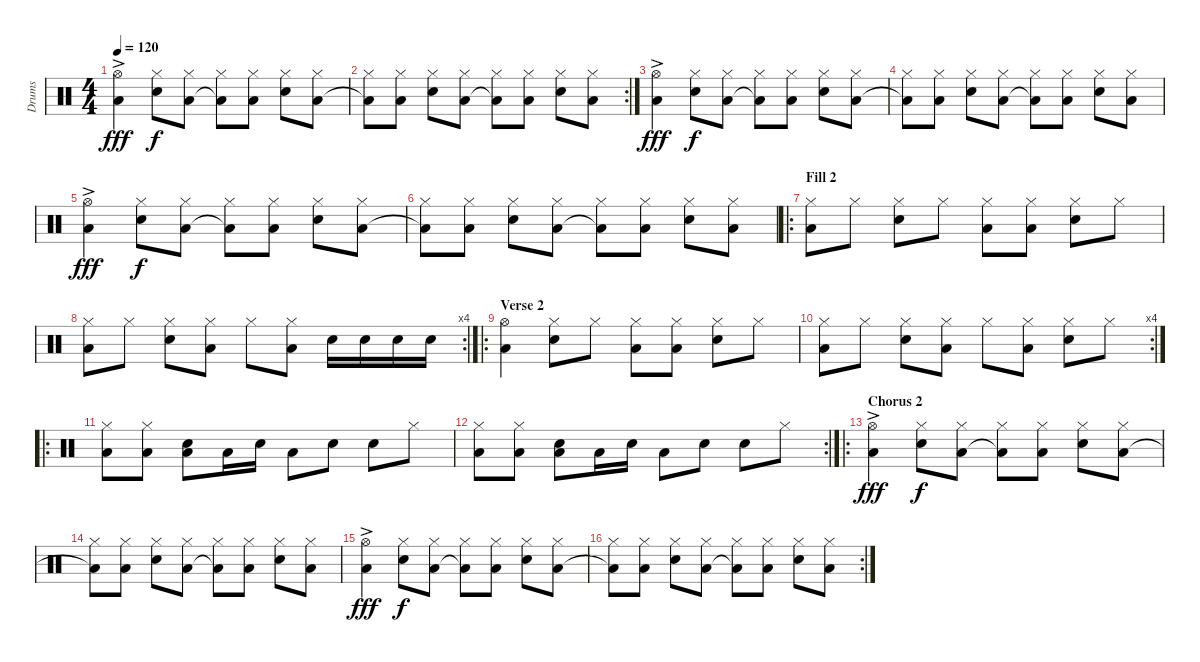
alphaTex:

\track ("Drums" "Drums") {instrument percussion}
\staff {score}
\articulation defaults
\ts (4 4)
\tempo 120
\clef neutral
\ks c
("Hi-Hat (open)"{ac} "Low Floor Tom (hit)"{ac}).4{dy fff} ("Hi-Hat (closed)" "Snare (hit) 2").8{dy f} ("Hi-Hat (closed)" "Low Floor Tom (hit)").8 ("Hi-Hat (closed)" "Low Floor Tom (hit)"{t}).8 ("Hi-Hat (closed)" "Low Floor Tom (hit)").8 ("Hi-Hat (closed)" "Snare (hit) 2").8 ("Hi-Hat (closed)" "Low Floor Tom (hit)").8 |
\rc 2
("Hi-Hat (closed)" "Low Floor Tom (hit)"{t}).8 ("Hi-Hat (closed)" "Low Floor Tom (hit)").8 ("Hi-Hat (closed)" "Snare (hit) 2").8 ("Hi-Hat (closed)" "Low Floor Tom (hit)").8 ("Hi-Hat (closed)" "Low Floor Tom (hit)"{t}).8 ("Hi-Hat (closed)" "Low Floor Tom (hit)").8 ("Hi-Hat (closed)" "Snare (hit) 2").8 ("Hi-Hat (closed)" "Low Floor Tom (hit)").8 |
("Hi-Hat (open)"{ac} "Low Floor Tom (hit)"{ac}).4{dy fff} ("Hi-Hat (closed)" "Snare (hit) 2").8{dy f} ("Hi-Hat (closed)" "Low Floor Tom (hit)").8 ("Hi-Hat (closed)" "Low Floor Tom (hit)"{t}).8 ("Hi-Hat (closed)" "Low Floor Tom (hit)").8 ("Hi-Hat (closed)" "Snare (hit) 2").8 ("Hi-Hat (closed)" "Low Floor Tom (hit)").8 |
("Hi-Hat (closed)" "Low Floor Tom (hit)"{t}).8 ("Hi-Hat (closed)" "Low Floor Tom (hit)").8 ("Hi-Hat (closed)" "Snare (hit) 2").8 ("Hi-Hat (closed)" "Low Floor Tom (hit)").8 ("Hi-Hat (closed)" "Low Floor Tom (hit)"{t}).8 ("Hi-Hat (closed)" "Low Floor Tom (hit)").8 ("Hi-Hat (closed)" "Snare (hit) 2").8 ("Hi-Hat (closed)" "Low Floor Tom (hit)").8 |
("Hi-Hat (open)"{ac} "Low Floor Tom (hit)"{ac}).4{dy fff} ("Hi-Hat (closed)" "Snare (hit) 2").8{dy f} ("Hi-Hat (closed)" "Low Floor Tom (hit)").8 ("Hi-Hat (closed)" "Low Floor Tom (hit)"{t}).8 ("Hi-Hat (closed)" "Low Floor Tom (hit)").8 ("Hi-Hat (closed)" "Snare (hit) 2").8 ("Hi-Hat (closed)" "Low Floor Tom (hit)").8 |
("Hi-Hat (closed)" "Low Floor Tom (hit)"{t}).8 ("Hi-Hat (closed)" "Low Floor Tom (hit)").8 ("Hi-Hat (closed)" "Snare (hit) 2").8 ("Hi-Hat (closed)" "Low Floor Tom (hit)").8 ("Hi-Hat (closed)" "Low Floor Tom (hit)"{t}).8 ("Hi-Hat (closed)" "Low Floor Tom (hit)").8 ("Hi-Hat (closed)" "Snare (hit) 2").8 ("Hi-Hat (closed)" "Low Floor Tom (hit)").8 |
\ro
\section ("" "Fill 2")
("Hi-Hat (closed)" "Low Floor Tom (hit)").8 "Hi-Hat (closed)".8 ("Hi-Hat (closed)" "Snare (hit) 2").8 "Hi-Hat (closed)".8 ("Hi-Hat (closed)" "Low Floor Tom (hit)").8 ("Hi-Hat (closed)" "Low Floor Tom (hit)").8 ("Hi-Hat (closed)" "Snare (hit) 2").8 "Hi-Hat (closed)".8 |
\rc 4
("Hi-Hat (closed)" "Low Floor Tom (hit)").8 "Hi-Hat (closed)".8 ("Hi-Hat (closed)" "Snare (hit) 2").8 ("Hi-Hat (closed)" "Low Floor Tom (hit)").8 "Hi-Hat (closed)".8 ("Hi-Hat (closed)" "Low Floor Tom (hit)").8 "Snare (hit) 2".16 "Snare (hit) 2".16 "Snare (hit) 2".16 "Snare (hit) 2".16 |
\ro
\section ("" "Verse 2")
("Hi-Hat (open)" "Low Floor Tom (hit)").4 ("Hi-Hat (closed)" "Snare (hit) 2").8 "Hi-Hat (closed)".8 ("Hi-Hat (closed)" "Low Floor Tom (hit)").8 ("Hi-Hat (closed)" "Low Floor Tom (hit)").8 ("Hi-Hat (closed)" "Snare (hit) 2").8 "Hi-Hat (closed)".8 |
\rc 4
("Hi-Hat (closed)" "Low Floor Tom (hit)").8 "Hi-Hat (closed)".8 ("Hi-Hat (closed)" "Snare (hit) 2").8 ("Hi-Hat (closed)" "Low Floor Tom (hit)").8 "Hi-Hat (closed)".8 ("Hi-Hat (closed)" "Low Floor Tom (hit)").8 ("Hi-Hat (closed)" "Snare (hit) 2").8 "Hi-Hat (closed)".8 |
\ro
("Hi-Hat (closed)" "Low Floor Tom (hit)").8 ("Hi-Hat (closed)" "Low Floor Tom (hit)").8 ("Low Floor Tom (hit)" "Snare (hit) 2").8 "Low Floor Tom (hit)".16 "Snare (hit) 2".16 "Low Floor Tom (hit)".8 "Snare (hit) 2".8 "Snare (hit) 2".8 "Hi-Hat (closed)".8 |
\rc 2
("Hi-Hat (closed)" "Low Floor Tom (hit)").8 ("Hi-Hat (closed)" "Low Floor Tom (hit)").8 ("Low Floor Tom (hit)" "Snare (hit) 2").8 "Low Floor Tom (hit)".16 "Snare (hit) 2".16 "Low Floor Tom (hit)".8 "Snare (hit) 2".8 "Snare (hit) 2".8 "Hi-Hat (closed)".8 |
\ro
\section ("" "Chorus 2")
("Hi-Hat (open)"{ac} "Low Floor Tom (hit)"{ac}).4{dy fff} ("Hi-Hat (closed)" "Snare (hit) 2").8{dy f} ("Hi-Hat (closed)" "Low Floor Tom (hit)").8 ("Hi-Hat (closed)" "Low Floor Tom (hit)"{t}).8 ("Hi-Hat (closed)" "Low Floor Tom (hit)").8 ("Hi-Hat (closed)" "Snare (hit) 2").8 ("Hi-Hat (closed)" "Low Floor Tom (hit)").8 |
("Hi-Hat (closed)" "Low Floor Tom (hit)"{t}).8 ("Hi-Hat (closed)" "Low Floor Tom (hit)").8 ("Hi-Hat (closed)" "Snare (hit) 2").8 ("Hi-Hat (closed)" "Low Floor Tom (hit)").8 ("Hi-Hat (closed)" "Low Floor Tom (hit)"{t}).8 ("Hi-Hat (closed)" "Low Floor Tom (hit)").8 ("Hi-Hat (closed)" "Snare (hit) 2").8 ("Hi-Hat (closed)" "Low Floor Tom (hit)").8 |
("Hi-Hat (open)"{ac} "Low Floor Tom (hit)"{ac}).4{dy fff} ("Hi-Hat (closed)" "Snare (hit) 2").8{dy f} ("Hi-Hat (closed)" "Low Floor Tom (hit)").8 ("Hi-Hat (closed)" "Low Floor Tom (hit)"{t}).8 ("Hi-Hat (closed)" "Low Floor Tom (hit)").8 ("Hi-Hat (closed)" "Snare (hit) 2").8 ("Hi-Hat (closed)" "Low Floor Tom (hit)").8 |
\rc 2
("Hi-Hat (closed)" "Low Floor Tom (hit)"{t}).8 ("Hi-Hat (closed)" "Low Floor Tom (hit)").8 ("Hi-Hat (closed)" "Snare (hit) 2").8 ("Hi-Hat (closed)" "Low Floor Tom (hit)").8 ("Hi-Hat (closed)" "Low Floor Tom (hit)"{t}).8 ("Hi-Hat (closed)" "Low Floor Tom (hit)").8 ("Hi-Hat (closed)" "Snare (hit) 2").8 ("Hi-Hat (closed)" "Low Floor Tom (hit)").8
